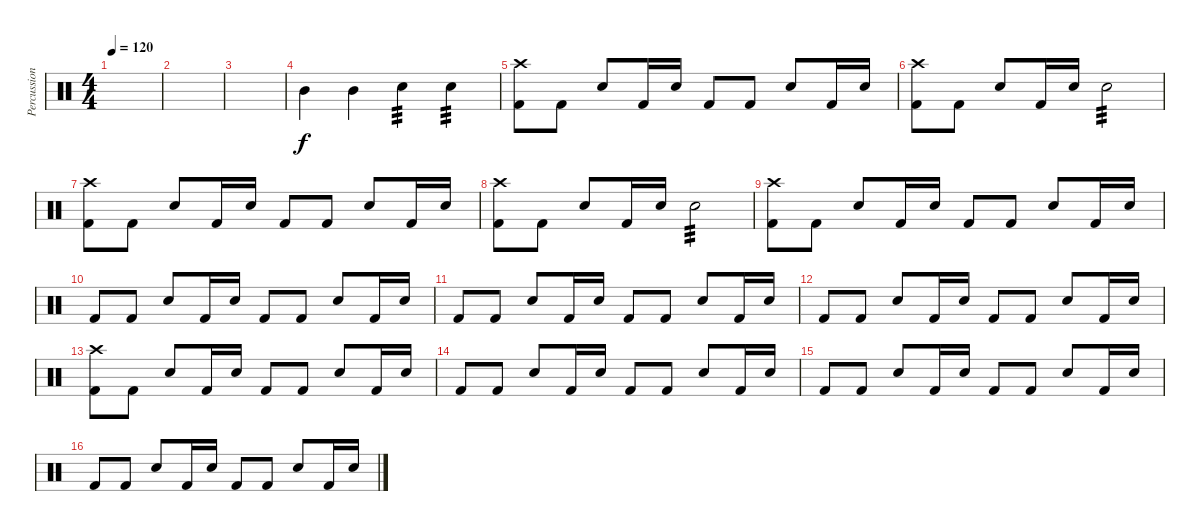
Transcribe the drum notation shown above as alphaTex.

\track ("Percussion" "Percussion") {instrument percussion}
\staff {score}
\articulation defaults
\ts (4 4)
\tempo 120
\clef neutral
\ks c
|
|
|
"Mid Tom (hit)".4 "Mid Tom (hit)".4 "Electric Snare (hit)".4{tp 3} "Electric Snare (hit)".4{tp 3} |
("Crash high (hit)" "Kick (hit) 2").8 "Kick (hit) 2".8 "Electric Snare (hit)".8 "Kick (hit) 2".16 "Electric Snare (hit)".16 "Kick (hit) 2".8 "Kick (hit) 2".8 "Electric Snare (hit)".8 "Kick (hit) 2".16 "Electric Snare (hit)".16 |
("Crash high (hit)" "Kick (hit) 2").8 "Kick (hit) 2".8 "Electric Snare (hit)".8 "Kick (hit) 2".16 "Electric Snare (hit)".16 "Electric Snare (hit)".2{tp 3} |
("Crash high (hit)" "Kick (hit) 2").8 "Kick (hit) 2".8 "Electric Snare (hit)".8 "Kick (hit) 2".16 "Electric Snare (hit)".16 "Kick (hit) 2".8 "Kick (hit) 2".8 "Electric Snare (hit)".8 "Kick (hit) 2".16 "Electric Snare (hit)".16 |
("Crash high (hit)" "Kick (hit) 2").8 "Kick (hit) 2".8 "Electric Snare (hit)".8 "Kick (hit) 2".16 "Electric Snare (hit)".16 "Electric Snare (hit)".2{tp 3} |
("Crash high (hit)" "Kick (hit) 2").8 "Kick (hit) 2".8 "Electric Snare (hit)".8 "Kick (hit) 2".16 "Electric Snare (hit)".16 "Kick (hit) 2".8 "Kick (hit) 2".8 "Electric Snare (hit)".8 "Kick (hit) 2".16 "Electric Snare (hit)".16 |
"Kick (hit) 2".8 "Kick (hit) 2".8 "Electric Snare (hit)".8 "Kick (hit) 2".16 "Electric Snare (hit)".16 "Kick (hit) 2".8 "Kick (hit) 2".8 "Electric Snare (hit)".8 "Kick (hit) 2".16 "Electric Snare (hit)".16 |
"Kick (hit) 2".8 "Kick (hit) 2".8 "Electric Snare (hit)".8 "Kick (hit) 2".16 "Electric Snare (hit)".16 "Kick (hit) 2".8 "Kick (hit) 2".8 "Electric Snare (hit)".8 "Kick (hit) 2".16 "Electric Snare (hit)".16 |
"Kick (hit) 2".8 "Kick (hit) 2".8 "Electric Snare (hit)".8 "Kick (hit) 2".16 "Electric Snare (hit)".16 "Kick (hit) 2".8 "Kick (hit) 2".8 "Electric Snare (hit)".8 "Kick (hit) 2".16 "Electric Snare (hit)".16 |
("Crash high (hit)" "Kick (hit) 2").8 "Kick (hit) 2".8 "Electric Snare (hit)".8 "Kick (hit) 2".16 "Electric Snare (hit)".16 "Kick (hit) 2".8 "Kick (hit) 2".8 "Electric Snare (hit)".8 "Kick (hit) 2".16 "Electric Snare (hit)".16 |
"Kick (hit) 2".8 "Kick (hit) 2".8 "Electric Snare (hit)".8 "Kick (hit) 2".16 "Electric Snare (hit)".16 "Kick (hit) 2".8 "Kick (hit) 2".8 "Electric Snare (hit)".8 "Kick (hit) 2".16 "Electric Snare (hit)".16 |
"Kick (hit) 2".8 "Kick (hit) 2".8 "Electric Snare (hit)".8 "Kick (hit) 2".16 "Electric Snare (hit)".16 "Kick (hit) 2".8 "Kick (hit) 2".8 "Electric Snare (hit)".8 "Kick (hit) 2".16 "Electric Snare (hit)".16 |
"Kick (hit) 2".8 "Kick (hit) 2".8 "Electric Snare (hit)".8 "Kick (hit) 2".16 "Electric Snare (hit)".16 "Kick (hit) 2".8 "Kick (hit) 2".8 "Electric Snare (hit)".8 "Kick (hit) 2".16 "Electric Snare (hit)".16
